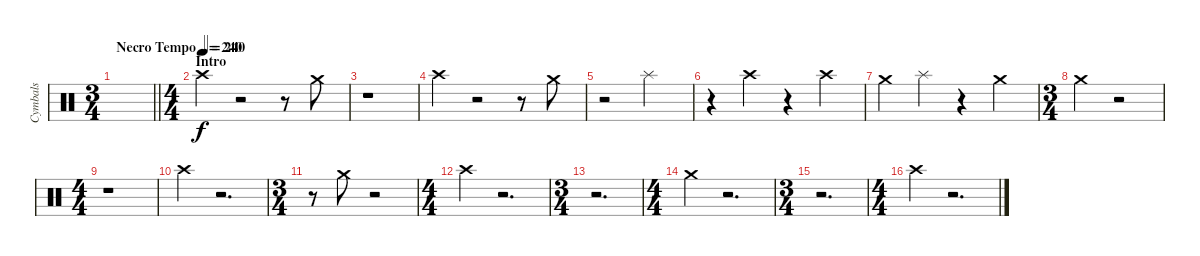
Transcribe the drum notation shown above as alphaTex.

\track ("Cymbals" "Cymbals") {instrument percussion}
\staff {score}
\articulation defaults
\ts (3 4)
\tempo (240 "Necro Tempo")
\clef neutral
\barLineRight lightlight
\ks c
|
\ts (4 4)
\section ("" "Intro")
\tempo (240)
"Crash high (hit)".4{volume 16} r.2 r.8 "Crash medium (hit)".8 |
r.1 |
"Crash high (hit)".4 r.2 r.8 "Crash medium (hit)".8 |
r.2 "Splash (hit)".2 |
r.4 "Crash high (hit)".4 r.4 "Crash high (hit)".4 |
"Crash medium (hit)".4 "Splash (hit)".4 r.4 "Crash medium (hit)".4 |
\ts (3 4)
"Crash medium (hit)".4 r.2 |
\ts (4 4)
r.1 |
"Crash high (hit)".4 r.2{d} |
\ts (3 4)
r.8 "Crash medium (hit)".8 r.2 |
\ts (4 4)
"Crash high (hit)".4 r.2{d} |
\ts (3 4)
r.2{d} |
\ts (4 4)
"Crash medium (hit)".4{dy f} r.2{d} |
\ts (3 4)
r.2{d} |
\ts (4 4)
"Crash high (hit)".4 r.2{d}
